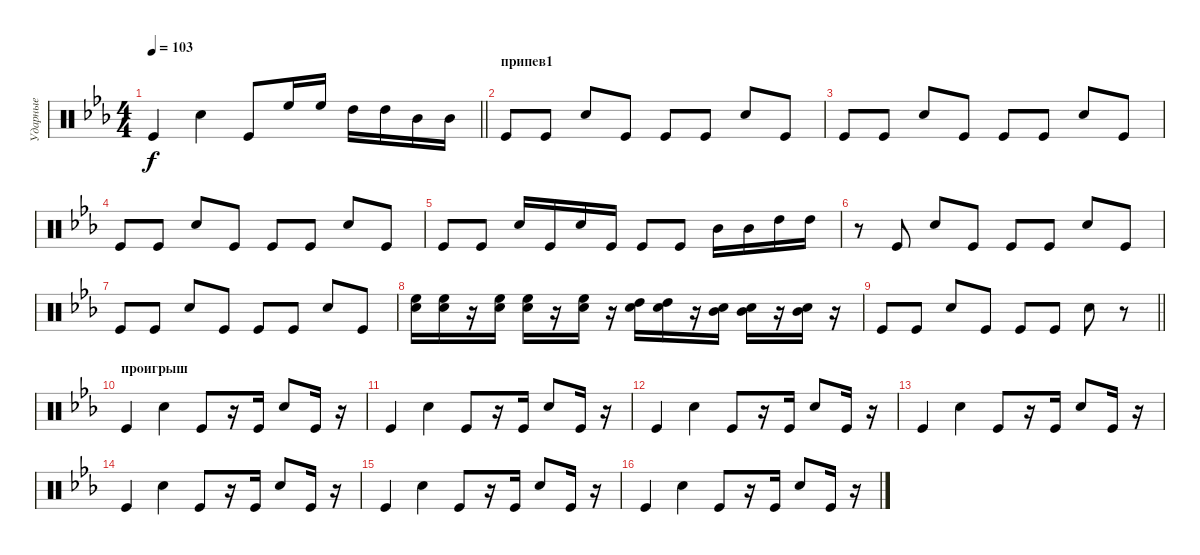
\track ("Ударные" "Ударные") {instrument percussion}
\staff {score}
\articulation defaults
\ts (4 4)
\tempo 103
\clef neutral
\barLineRight lightlight
\ks cminor "Kick (hit)".4{dy f} "Electric Snare (hit)".4 "Kick (hit)".8 "High Floor Tom (hit)".16 "High Floor Tom (hit)".16 "High Tom (hit)".16 "High Tom (hit)".16 "Mid Tom (hit)".16 "Mid Tom (hit)".16
|
\section ("" "припев1")
"Kick (hit)".8 "Kick (hit)".8 "Electric Snare (hit)".8 "Kick (hit)".8 "Kick (hit)".8 "Kick (hit)".8 "Electric Snare (hit)".8 "Kick (hit)".8 |
"Kick (hit)".8 "Kick (hit)".8 "Electric Snare (hit)".8 "Kick (hit)".8 "Kick (hit)".8 "Kick (hit)".8 "Electric Snare (hit)".8 "Kick (hit)".8 |
"Kick (hit)".8 "Kick (hit)".8 "Electric Snare (hit)".8 "Kick (hit)".8 "Kick (hit)".8 "Kick (hit)".8 "Electric Snare (hit)".8 "Kick (hit)".8 |
"Kick (hit)".8 "Kick (hit)".8 "Electric Snare (hit)".16 "Kick (hit)".16 "Electric Snare (hit)".16 "Kick (hit)".16 "Kick (hit)".8 "Kick (hit)".8 "Mid Tom (hit)".16 "Mid Tom (hit)".16 "High Tom (hit)".16 "High Tom (hit)".16 |
r.8 "Kick (hit)".8 "Electric Snare (hit)".8 "Kick (hit)".8 "Kick (hit)".8 "Kick (hit)".8 "Electric Snare (hit)".8 "Kick (hit)".8 |
"Kick (hit)".8 "Kick (hit)".8 "Electric Snare (hit)".8 "Kick (hit)".8 "Kick (hit)".8 "Kick (hit)".8 "Electric Snare (hit)".8 "Kick (hit)".8 |
("High Floor Tom (hit)" "Electric Snare (hit)").16 ("High Floor Tom (hit)" "Electric Snare (hit)").16 r.16 ("High Floor Tom (hit)" "Electric Snare (hit)").16 ("High Floor Tom (hit)" "Electric Snare (hit)").16 r.16 ("High Floor Tom (hit)" "Electric Snare (hit)").16 r.16 ("High Tom (hit)" "Electric Snare (hit)").16 ("High Tom (hit)" "Electric Snare (hit)").16 r.16 ("Mid Tom (hit)" "Electric Snare (hit)").16 ("Mid Tom (hit)" "Electric Snare (hit)").16 r.16 ("Mid Tom (hit)" "Electric Snare (hit)").16 r.16 |
\barLineRight lightlight "Kick (hit)".8 "Kick (hit)".8 "Electric Snare (hit)".8 "Kick (hit)".8 "Kick (hit)".8 "Kick (hit)".8 "Electric Snare (hit)".8
r.8 |
\section ("" "проигрыш")
"Kick (hit)".4 "Electric Snare (hit)".4 "Kick (hit)".8 r.16 "Kick (hit)".16 "Electric Snare (hit)".8 "Kick (hit)".16 r.16 |
"Kick (hit)".4 "Electric Snare (hit)".4 "Kick (hit)".8 r.16 "Kick (hit)".16 "Electric Snare (hit)".8 "Kick (hit)".16 r.16 |
"Kick (hit)".4 "Electric Snare (hit)".4 "Kick (hit)".8 r.16 "Kick (hit)".16 "Electric Snare (hit)".8 "Kick (hit)".16 r.16 |
"Kick (hit)".4 "Electric Snare (hit)".4 "Kick (hit)".8 r.16 "Kick (hit)".16 "Electric Snare (hit)".8 "Kick (hit)".16 r.16 |
"Kick (hit)".4 "Electric Snare (hit)".4 "Kick (hit)".8 r.16 "Kick (hit)".16 "Electric Snare (hit)".8 "Kick (hit)".16 r.16 |
"Kick (hit)".4 "Electric Snare (hit)".4 "Kick (hit)".8 r.16 "Kick (hit)".16 "Electric Snare (hit)".8 "Kick (hit)".16 r.16 |
"Kick (hit)".4 "Electric Snare (hit)".4 "Kick (hit)".8 r.16 "Kick (hit)".16 "Electric Snare (hit)".8 "Kick (hit)".16 r.16
